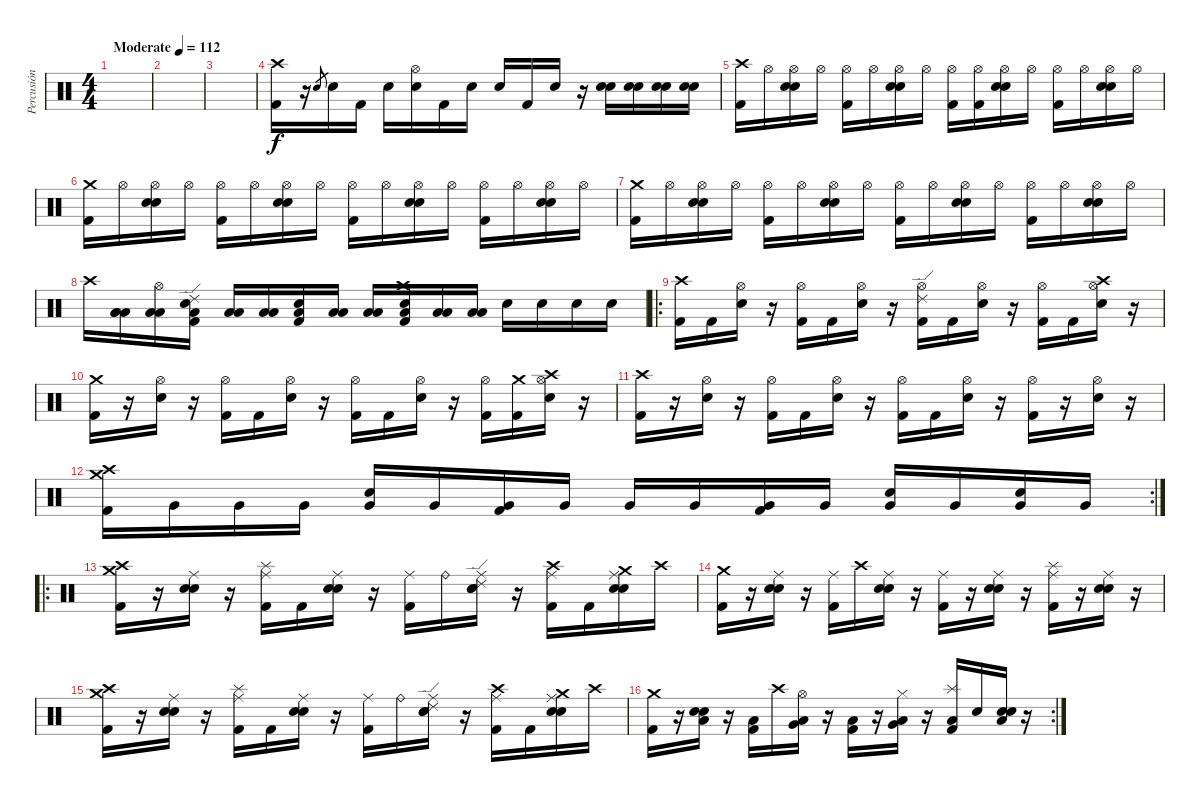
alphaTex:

\track ("Percusión" "Percusión") {instrument percussion}
\staff {score}
\articulation defaults
\ts (4 4)
\tempo (112 "Moderate")
\clef neutral
\ks c
|
|
|
("Crash high (hit)" "Kick (hit) 2").16 r.16 "Electric Snare (hit)".8{gr} "Electric Snare (hit)".16 "Kick (hit) 2".16 "Electric Snare (hit)".16 ("Hi-Hat (open)" "Electric Snare (hit)").16 "Kick (hit) 2".16 "Electric Snare (hit)".16 "Electric Snare (hit)".16 "Kick (hit) 2".16 "Electric Snare (hit)".16 r.16 ("Electric Snare (hit)" "Electric Snare (hit)").16 ("Electric Snare (hit)" "Electric Snare (hit)").16 ("Electric Snare (hit)" "Electric Snare (hit)").16 ("Electric Snare (hit)" "Electric Snare (hit)").16 |
("Crash high (hit)" "Kick (hit) 2").16 "Hi-Hat (open)".16 ("Electric Snare (hit)" "Hi-Hat (open)" "Electric Snare (hit)").16 "Hi-Hat (open)".16 ("Hi-Hat (open)" "Kick (hit) 2").16 "Hi-Hat (open)".16 ("Electric Snare (hit)" "Hi-Hat (open)" "Electric Snare (hit)").16 "Hi-Hat (open)".16 ("Hi-Hat (open)" "Kick (hit) 2").16 ("Hi-Hat (open)" "Kick (hit) 2").16 ("Electric Snare (hit)" "Hi-Hat (open)" "Electric Snare (hit)").16 "Hi-Hat (open)".16 ("Hi-Hat (open)" "Kick (hit) 2").16 "Hi-Hat (open)".16 ("Electric Snare (hit)" "Hi-Hat (open)" "Electric Snare (hit)").16 "Hi-Hat (open)".16 |
("Crash medium (hit)" "Kick (hit) 2").16 "Hi-Hat (open)".16 ("Electric Snare (hit)" "Hi-Hat (open)" "Electric Snare (hit)").16 "Hi-Hat (open)".16 ("Hi-Hat (open)" "Kick (hit) 2").16 "Hi-Hat (open)".16 ("Electric Snare (hit)" "Hi-Hat (open)" "Electric Snare (hit)").16 "Hi-Hat (open)".16 ("Hi-Hat (open)" "Kick (hit) 2").16 "Hi-Hat (open)".16 ("Electric Snare (hit)" "Hi-Hat (open)" "Electric Snare (hit)").16 "Hi-Hat (open)".16 ("Kick (hit) 2" "Hi-Hat (open)").16 "Hi-Hat (open)".16 ("Electric Snare (hit)" "Hi-Hat (open)" "Electric Snare (hit)").16 "Hi-Hat (open)".16 |
("Crash medium (hit)" "Kick (hit) 2").16 "Hi-Hat (open)".16 ("Electric Snare (hit)" "Hi-Hat (open)" "Electric Snare (hit)").16 "Hi-Hat (open)".16 ("Hi-Hat (open)" "Kick (hit) 2").16 "Hi-Hat (open)".16 ("Electric Snare (hit)" "Hi-Hat (open)" "Electric Snare (hit)").16 "Hi-Hat (open)".16 ("Hi-Hat (open)" "Kick (hit) 2").16 "Hi-Hat (open)".16 ("Electric Snare (hit)" "Hi-Hat (open)" "Electric Snare (hit)").16 "Hi-Hat (open)".16 ("Hi-Hat (open)" "Kick (hit) 2").16 "Hi-Hat (open)".16 ("Electric Snare (hit)" "Hi-Hat (open)" "Electric Snare (hit)").16 "Hi-Hat (open)".16 |
"Crash high (hit)".16 ("Low Floor Tom (hit)" "Low Floor Tom (hit)" "Low Floor Tom (hit)").16 ("Low Floor Tom (hit)" "Hi-Hat (open)" "Low Floor Tom (hit)").16 ("Ride (edge) 2" "Electric Snare (hit)" "Kick (hit) 2" "Low Floor Tom (hit)").16 ("Low Floor Tom (hit)" "Low Floor Tom (hit)").16 ("Low Floor Tom (hit)" "Low Floor Tom (hit)").16 ("Electric Snare (hit)" "Kick (hit) 2" "Low Floor Tom (hit)").16 ("Low Floor Tom (hit)" "Low Floor Tom (hit)").16 ("Low Floor Tom (hit)" "Low Floor Tom (hit)").16 ("Crash medium (hit)" "Electric Snare (hit)" "Kick (hit) 2" "Low Floor Tom (hit)").16 ("Low Floor Tom (hit)" "Low Floor Tom (hit)").16 ("Low Floor Tom (hit)" "Low Floor Tom (hit)").16 "Electric Snare (hit)".16 "Electric Snare (hit)".16 "Electric Snare (hit)".16 "Electric Snare (hit)".16 |
\ro
("Crash high (hit)" "Kick (hit) 2").16 "Kick (hit) 2".16 ("Hi-Hat (open)" "Electric Snare (hit)").16 r.16 ("Hi-Hat (open)" "Kick (hit) 2").16 "Kick (hit) 2".16 ("Hi-Hat (open)" "Electric Snare (hit)").16 r.16 ("Ride (edge) 2" "Hi-Hat (open)" "Kick (hit) 2").16 "Kick (hit) 2".16 ("Hi-Hat (open)" "Electric Snare (hit)").16 r.16 ("Hi-Hat (open)" "Kick (hit) 2").16 "Kick (hit) 2".16 ("Crash high (hit)" "Hi-Hat (open)" "Electric Snare (hit)").16 r.16 |
("Crash medium (hit)" "Kick (hit) 2").16 r.16 ("Hi-Hat (open)" "Electric Snare (hit)").16 r.16 ("Hi-Hat (open)" "Kick (hit) 2").16 "Kick (hit) 2".16 ("Hi-Hat (open)" "Electric Snare (hit)").16 r.16 ("Hi-Hat (open)" "Kick (hit) 2").16 "Kick (hit) 2".16 ("Hi-Hat (open)" "Electric Snare (hit)").16 r.16 ("Hi-Hat (open)" "Kick (hit) 2").16 ("Crash medium (hit)" "Kick (hit) 2").16 ("Crash high (hit)" "Hi-Hat (open)" "Electric Snare (hit)").16 r.16 |
("Crash high (hit)" "Kick (hit) 2").16 r.16 ("Hi-Hat (open)" "Electric Snare (hit)").16 r.16 ("Hi-Hat (open)" "Kick (hit) 2").16 "Kick (hit) 2".16 ("Hi-Hat (open)" "Electric Snare (hit)").16 r.16 ("Hi-Hat (open)" "Kick (hit) 2").16 "Kick (hit) 2".16 ("Hi-Hat (open)" "Electric Snare (hit)").16 r.16 ("Hi-Hat (open)" "Kick (hit) 2").16 r.16 ("Hi-Hat (open)" "Electric Snare (hit)").16 r.16 |
\rc 2
("Crash medium (hit)" "Crash high (hit)" "Kick (hit) 2").16 "Very Low Tom (hit)".16 "Very Low Tom (hit)".16 "Very Low Tom (hit)".16 ("Very Low Tom (hit)" "Electric Snare (hit)").16 "Very Low Tom (hit)".16 ("Kick (hit) 2" "Very Low Tom (hit)").16 "Very Low Tom (hit)".16 "Very Low Tom (hit)".16 "Very Low Tom (hit)".16 ("Kick (hit) 2" "Very Low Tom (hit)").16 "Very Low Tom (hit)".16 ("Very Low Tom (hit)" "Electric Snare (hit)").16 "Very Low Tom (hit)".16 ("Very Low Tom (hit)" "Electric Snare (hit)").16 "Very Low Tom (hit)".16 |
\ro
("Crash medium (hit)" "Crash high (hit)" "Kick (hit) 2").16 r.16 ("Ride (middle)" "Electric Snare (hit)" "Electric Snare (hit)").16 r.16 ("Splash (hit)" "Ride (middle)" "Kick (hit) 2").16 "Kick (hit) 2".16 ("Ride (middle)" "Electric Snare (hit)" "Electric Snare (hit)").16 r.16 ("Ride (middle)" "Kick (hit) 2").16 "Ride (bell)".16 ("Ride (edge) 2" "Ride (middle)" "Electric Snare (hit)" "Electric Snare (hit)").16 r.16 ("Crash high (hit)" "Ride (middle)" "Kick (hit) 2").16 "Kick (hit) 2".16 ("Crash medium (hit)" "Ride (middle)" "Electric Snare (hit)" "Electric Snare (hit)").16 "Crash high (hit)".16 |
("Crash medium (hit)" "Kick (hit) 2").16 r.16 ("Ride (middle)" "Electric Snare (hit)" "Electric Snare (hit)").16 r.16 ("Ride (middle)" "Kick (hit) 2").16 "Crash high (hit)".16 ("Ride (middle)" "Electric Snare (hit)" "Electric Snare (hit)").16 r.16 ("Ride (middle)" "Kick (hit) 2").16 r.16 ("Ride (middle)" "Electric Snare (hit)" "Electric Snare (hit)").16 r.16 ("Splash (hit)" "Ride (middle)" "Kick (hit) 2").16 r.16 ("Ride (middle)" "Electric Snare (hit)" "Electric Snare (hit)").16 r.16 |
("Crash medium (hit)" "Crash high (hit)" "Kick (hit) 2").16 r.16 ("Ride (middle)" "Electric Snare (hit)" "Electric Snare (hit)").16 r.16 ("Splash (hit)" "Ride (middle)" "Kick (hit) 2").16 "Kick (hit) 2".16 ("Ride (middle)" "Electric Snare (hit)" "Electric Snare (hit)").16 r.16 ("Ride (middle)" "Kick (hit) 2").16 "Ride (bell)".16 ("Ride (edge) 2" "Ride (middle)" "Electric Snare (hit)" "Electric Snare (hit)").16 r.16 ("Crash high (hit)" "Ride (middle)" "Kick (hit) 2").16 "Kick (hit) 2".16 ("Crash medium (hit)" "Ride (middle)" "Electric Snare (hit)" "Electric Snare (hit)").16 "Crash high (hit)".16 |
\rc 2
("Crash medium (hit)" "Kick (hit) 2").16 r.16 ("Low Tom (hit)" "Electric Snare (hit)" "Electric Snare (hit)").16 r.16 ("Low Tom (hit)" "Kick (hit) 2").16 "Crash high (hit)".16 ("Low Tom (hit)" "Hi-Hat (open)" "Very Low Tom (hit)").16 r.16 ("Low Tom (hit)" "Kick (hit) 2").16 r.16 ("Low Tom (hit)" "Hi-Hat (closed)" "Very Low Tom (hit)").16 r.16 ("Splash (hit)" "Low Tom (hit)" "Kick (hit) 2").16 "Electric Snare (hit)".16 ("Low Tom (hit)" "Electric Snare (hit)" "Electric Snare (hit)").16 r.16
